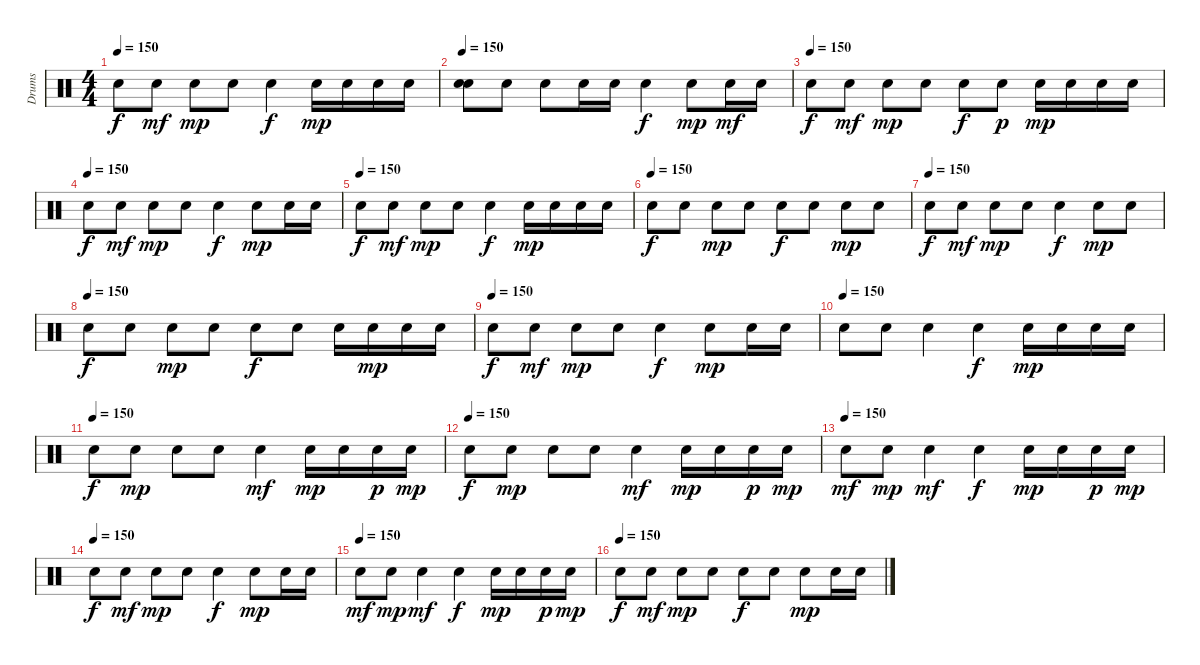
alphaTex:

\track ("Drums" "Drums") {instrument percussion}
\staff {score}
\articulation defaults
\ts (4 4)
\tempo 150
\clef neutral
\ks c "Electric Snare (hit)".8{dy f} "Electric Snare (hit)".8{dy mf} "Electric Snare (hit)".8{dy mp} "Electric Snare (hit)".8 "Electric Snare (hit)".4{dy f} "Electric Snare (hit)".16{dy mp} "Electric Snare (hit)".16 "Electric Snare (hit)".16 "Electric Snare (hit)".16
|
\tempo 150
("Electric Snare (hit)" "Electric Snare (hit)").8{volume 11} "Electric Snare (hit)".8 "Electric Snare (hit)".8 "Electric Snare (hit)".16 "Electric Snare (hit)".16 "Electric Snare (hit)".4{dy f} "Electric Snare (hit)".8{dy mp} "Electric Snare (hit)".16{dy mf} "Electric Snare (hit)".16 |
\tempo (150)
"Electric Snare (hit)".8{dy f} "Electric Snare (hit)".8{dy mf} "Electric Snare (hit)".8{dy mp} "Electric Snare (hit)".8 "Electric Snare (hit)".8{dy f} "Electric Snare (hit)".8{dy p} "Electric Snare (hit)".16{dy mp} "Electric Snare (hit)".16 "Electric Snare (hit)".16 "Electric Snare (hit)".16 |
\tempo (150)
"Electric Snare (hit)".8{dy f} "Electric Snare (hit)".8{dy mf} "Electric Snare (hit)".8{dy mp} "Electric Snare (hit)".8 "Electric Snare (hit)".4{dy f} "Electric Snare (hit)".8{dy mp} "Electric Snare (hit)".16 "Electric Snare (hit)".16 |
\tempo (150)
"Electric Snare (hit)".8{dy f} "Electric Snare (hit)".8{dy mf} "Electric Snare (hit)".8{dy mp} "Electric Snare (hit)".8 "Electric Snare (hit)".4{dy f} "Electric Snare (hit)".16{dy mp} "Electric Snare (hit)".16 "Electric Snare (hit)".16 "Electric Snare (hit)".16 |
\tempo (150)
"Electric Snare (hit)".8{dy f} "Electric Snare (hit)".8 "Electric Snare (hit)".8{dy mp} "Electric Snare (hit)".8 "Electric Snare (hit)".8{dy f} "Electric Snare (hit)".8 "Electric Snare (hit)".8{dy mp} "Electric Snare (hit)".8 |
\tempo (150)
"Electric Snare (hit)".8{dy f} "Electric Snare (hit)".8{dy mf} "Electric Snare (hit)".8{dy mp} "Electric Snare (hit)".8 "Electric Snare (hit)".4{dy f} "Electric Snare (hit)".8{dy mp} "Electric Snare (hit)".8 |
\tempo (150)
"Electric Snare (hit)".8{dy f} "Electric Snare (hit)".8 "Electric Snare (hit)".8{dy mp} "Electric Snare (hit)".8 "Electric Snare (hit)".8{dy f} "Electric Snare (hit)".8 "Electric Snare (hit)".16 "Electric Snare (hit)".16{dy mp} "Electric Snare (hit)".16 "Electric Snare (hit)".16 |
\tempo (150)
"Electric Snare (hit)".8{dy f} "Electric Snare (hit)".8{dy mf} "Electric Snare (hit)".8{dy mp} "Electric Snare (hit)".8 "Electric Snare (hit)".4{dy f} "Electric Snare (hit)".8{dy mp} "Electric Snare (hit)".16 "Electric Snare (hit)".16 |
\tempo (150)
"Electric Snare (hit)".8 "Electric Snare (hit)".8 "Electric Snare (hit)".4 "Electric Snare (hit)".4{dy f} "Electric Snare (hit)".16{dy mp} "Electric Snare (hit)".16 "Electric Snare (hit)".16 "Electric Snare (hit)".16 |
\tempo (150)
"Electric Snare (hit)".8{dy f} "Electric Snare (hit)".8{dy mp} "Electric Snare (hit)".8 "Electric Snare (hit)".8 "Electric Snare (hit)".4{dy mf} "Electric Snare (hit)".16{dy mp} "Electric Snare (hit)".16 "Electric Snare (hit)".16{dy p} "Electric Snare (hit)".16{dy mp} |
\tempo (150)
"Electric Snare (hit)".8{dy f} "Electric Snare (hit)".8{dy mp} "Electric Snare (hit)".8 "Electric Snare (hit)".8 "Electric Snare (hit)".4{dy mf} "Electric Snare (hit)".16{dy mp} "Electric Snare (hit)".16 "Electric Snare (hit)".16{dy p} "Electric Snare (hit)".16{dy mp} |
\tempo (150)
"Electric Snare (hit)".8{dy mf} "Electric Snare (hit)".8{dy mp} "Electric Snare (hit)".4{dy mf} "Electric Snare (hit)".4{dy f} "Electric Snare (hit)".16{dy mp} "Electric Snare (hit)".16 "Electric Snare (hit)".16{dy p} "Electric Snare (hit)".16{dy mp} |
\tempo (150)
"Electric Snare (hit)".8{dy f} "Electric Snare (hit)".8{dy mf} "Electric Snare (hit)".8{dy mp} "Electric Snare (hit)".8 "Electric Snare (hit)".4{dy f} "Electric Snare (hit)".8{dy mp} "Electric Snare (hit)".16 "Electric Snare (hit)".16 |
\tempo (150)
"Electric Snare (hit)".8{dy mf} "Electric Snare (hit)".8{dy mp} "Electric Snare (hit)".4{dy mf} "Electric Snare (hit)".4{dy f} "Electric Snare (hit)".16{dy mp} "Electric Snare (hit)".16 "Electric Snare (hit)".16{dy p} "Electric Snare (hit)".16{dy mp} |
\tempo (150)
"Electric Snare (hit)".8{dy f} "Electric Snare (hit)".8{dy mf} "Electric Snare (hit)".8{dy mp} "Electric Snare (hit)".8 "Electric Snare (hit)".8{dy f} "Electric Snare (hit)".8 "Electric Snare (hit)".8{dy mp} "Electric Snare (hit)".16 "Electric Snare (hit)".16
